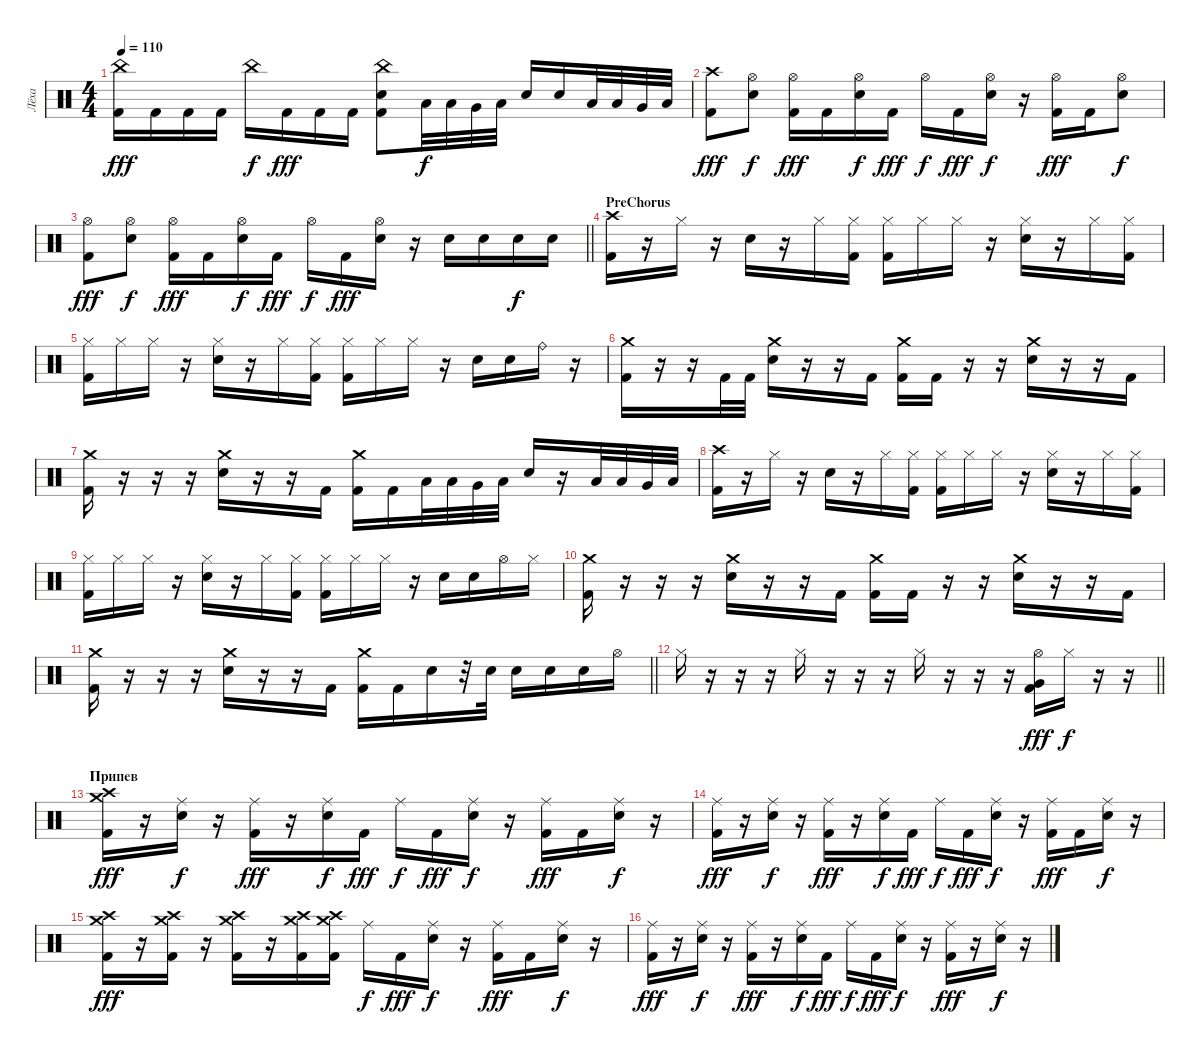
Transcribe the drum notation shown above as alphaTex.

\track ("Лёха" "Лёха") {instrument percussion}
\staff {score}
\articulation defaults
\ts (4 4)
\tempo 110
\clef neutral
\ks c
("China (hit)" "Kick (hit) 2").16{dy fff} "Kick (hit) 2".16 "Kick (hit) 2".16 "Kick (hit) 2".16 "China (hit)".16{dy f} "Kick (hit) 2".16{dy fff} "Kick (hit) 2".16 "Kick (hit) 2".16 ("China (hit)" "Electric Snare (hit)" "Kick (hit) 2").8 "Low Tom (hit)".32{dy f} "Low Tom (hit)".32 "Very Low Tom (hit)".32 "Low Floor Tom (hit)".32 "Electric Snare (hit)".16 "Electric Snare (hit)".16 "Low Tom (hit)".32 "Low Tom (hit)".32 "Very Low Tom (hit)".32 "Low Floor Tom (hit)".32 |
("Crash high (hit)" "Kick (hit) 2").8{dy fff} ("Hi-Hat (open)" "Electric Snare (hit)").8{dy f} ("Hi-Hat (open)" "Kick (hit) 2").16{dy fff} "Kick (hit) 2".16 ("Hi-Hat (open)" "Electric Snare (hit)").16{dy f} "Kick (hit) 2".16{dy fff} "Hi-Hat (open)".16{dy f} "Kick (hit) 2".16{dy fff} ("Hi-Hat (open)" "Electric Snare (hit)").16{dy f} r.16 ("Hi-Hat (open)" "Kick (hit) 2").16{dy fff} "Kick (hit) 2".16 ("Hi-Hat (open)" "Electric Snare (hit)").8{dy f} |
\barLineRight lightlight
("Hi-Hat (open)" "Kick (hit) 2").8{dy fff} ("Hi-Hat (open)" "Electric Snare (hit)").8{dy f} ("Hi-Hat (open)" "Kick (hit) 2").16{dy fff} "Kick (hit) 2".16 ("Hi-Hat (open)" "Electric Snare (hit)").16{dy f} "Kick (hit) 2".16{dy fff} "Hi-Hat (open)".16{dy f} "Kick (hit) 2".16{dy fff} ("Hi-Hat (open)" "Electric Snare (hit)").16 r.16 "Electric Snare (hit)".16 "Electric Snare (hit)".16 "Electric Snare (hit)".16{dy f} "Electric Snare (hit)".16 |
\section ("" "PreChorus")
("Crash high (hit)" "Kick (hit) 2").16 r.16 "Hi-Hat (closed)".16 r.16 "Electric Snare (hit)".16 r.16 "Hi-Hat (closed)".16 ("Hi-Hat (closed)" "Kick (hit) 2").16 ("Hi-Hat (closed)" "Kick (hit) 2").16 "Hi-Hat (closed)".16 "Hi-Hat (closed)".16 r.16 ("Hi-Hat (closed)" "Electric Snare (hit)").16 r.16 "Hi-Hat (closed)".16 ("Hi-Hat (closed)" "Kick (hit) 2").16 |
("Hi-Hat (closed)" "Kick (hit) 2").16 "Hi-Hat (closed)".16 "Hi-Hat (closed)".16 r.16 ("Hi-Hat (closed)" "Electric Snare (hit)").16 r.16 "Hi-Hat (closed)".16 ("Hi-Hat (closed)" "Kick (hit) 2").16 ("Hi-Hat (closed)" "Kick (hit) 2").16 "Hi-Hat (closed)".16 "Hi-Hat (closed)".16 r.16 "Electric Snare (hit)".16 "Electric Snare (hit)".16 "Ride (bell)".16 r.16 |
("Crash medium (hit)" "Kick (hit) 2").16 r.16 r.16 "Kick (hit) 2".32 "Kick (hit) 2".32 ("Crash medium (hit)" "Electric Snare (hit)").16 r.16 r.16 "Kick (hit) 2".16 ("Crash medium (hit)" "Kick (hit) 2").16 "Kick (hit) 2".16 r.16 r.16 ("Crash medium (hit)" "Electric Snare (hit)").16 r.16 r.16 "Kick (hit) 2".16 |
("Crash medium (hit)" "Kick (hit) 2").16 r.16 r.16 r.16 ("Crash medium (hit)" "Electric Snare (hit)").16 r.16 r.16 "Kick (hit) 2".16 ("Crash medium (hit)" "Kick (hit) 2").16 "Kick (hit) 2".16 "Low Tom (hit)".32 "Low Tom (hit)".32 "Very Low Tom (hit)".32 "Low Floor Tom (hit)".32 "Electric Snare (hit)".16 r.16 "Low Tom (hit)".32 "Low Tom (hit)".32 "Very Low Tom (hit)".32 "Low Floor Tom (hit)".32 |
("Crash high (hit)" "Kick (hit) 2").16 r.16 "Hi-Hat (closed)".16 r.16 "Electric Snare (hit)".16 r.16 "Hi-Hat (closed)".16 ("Hi-Hat (closed)" "Kick (hit) 2").16 ("Hi-Hat (closed)" "Kick (hit) 2").16 "Hi-Hat (closed)".16 "Hi-Hat (closed)".16 r.16 ("Hi-Hat (closed)" "Electric Snare (hit)").16 r.16 "Hi-Hat (closed)".16 ("Hi-Hat (closed)" "Kick (hit) 2").16 |
("Hi-Hat (closed)" "Kick (hit) 2").16 "Hi-Hat (closed)".16 "Hi-Hat (closed)".16 r.16 ("Hi-Hat (closed)" "Electric Snare (hit)").16 r.16 "Hi-Hat (closed)".16 ("Hi-Hat (closed)" "Kick (hit) 2").16 ("Hi-Hat (closed)" "Kick (hit) 2").16 "Hi-Hat (closed)".16 "Hi-Hat (closed)".16 r.16 "Electric Snare (hit)".16 "Electric Snare (hit)".16 "Hi-Hat (open)".16 "Hi-Hat (closed)".16 |
("Crash medium (hit)" "Kick (hit) 2").16 r.16 r.16 r.16 ("Crash medium (hit)" "Electric Snare (hit)").16 r.16 r.16 "Kick (hit) 2".16 ("Crash medium (hit)" "Kick (hit) 2").16 "Kick (hit) 2".16 r.16 r.16 ("Crash medium (hit)" "Electric Snare (hit)").16 r.16 r.16 "Kick (hit) 2".16 |
\barLineRight lightlight
("Crash medium (hit)" "Kick (hit) 2").16 r.16 r.16 r.16 ("Crash medium (hit)" "Electric Snare (hit)").16 r.16 r.16 "Kick (hit) 2".16 ("Crash medium (hit)" "Kick (hit) 2").16 "Kick (hit) 2".16 "Electric Snare (hit)".16 r.32 "Electric Snare (hit)".32 "Electric Snare (hit)".16 "Electric Snare (hit)".16 "Electric Snare (hit)".16 "Hi-Hat (open)".16 |
\section ("" "")
\barLineRight lightlight "Hi-Hat (closed)".16
r.16 r.16 r.16 "Hi-Hat (closed)".16 r.16 r.16 r.16 "Hi-Hat (closed)".16 r.16 r.16 r.16 ("Hi-Hat (open)" "Very Low Tom (hit)" "Kick (hit) 2").16{dy fff} "Hi-Hat (closed)".16{dy f} r.16 r.16 |
\section ("" "Припев")
("Crash high (hit)" "Crash medium (hit)" "Kick (hit) 2").16{dy fff} r.16 ("Ride (middle)" "Electric Snare (hit)").16{dy f} r.16 ("Ride (middle)" "Kick (hit) 2").16{dy fff} r.16 ("Ride (middle)" "Electric Snare (hit)").16{dy f} "Kick (hit) 2".16{dy fff} "Ride (middle)".16{dy f} "Kick (hit) 2".16{dy fff} ("Ride (middle)" "Electric Snare (hit)").16{dy f} r.16 ("Ride (middle)" "Kick (hit) 2").16{dy fff} "Kick (hit) 2".16 ("Ride (middle)" "Electric Snare (hit)").16{dy f} r.16 |
("Ride (middle)" "Kick (hit) 2").16{dy fff} r.16 ("Ride (middle)" "Electric Snare (hit)").16{dy f} r.16 ("Ride (middle)" "Kick (hit) 2").16{dy fff} r.16 ("Ride (middle)" "Electric Snare (hit)").16{dy f} "Kick (hit) 2".16{dy fff} "Ride (middle)".16{dy f} "Kick (hit) 2".16{dy fff} ("Ride (middle)" "Electric Snare (hit)").16{dy f} r.16 ("Ride (middle)" "Kick (hit) 2").16{dy fff} "Kick (hit) 2".16 ("Ride (middle)" "Electric Snare (hit)").16{dy f} r.16 |
("Crash high (hit)" "Crash medium (hit)" "Kick (hit) 2").16{dy fff} r.16 ("Crash high (hit)" "Crash medium (hit)" "Kick (hit) 2").16 r.16 ("Crash high (hit)" "Crash medium (hit)" "Kick (hit) 2").16 r.16 ("Crash high (hit)" "Crash medium (hit)" "Kick (hit) 2").16 ("Crash high (hit)" "Crash medium (hit)" "Kick (hit) 2").16 "Ride (middle)".16{dy f} "Kick (hit) 2".16{dy fff} ("Ride (middle)" "Electric Snare (hit)").16{dy f} r.16 ("Ride (middle)" "Kick (hit) 2").16{dy fff} "Kick (hit) 2".16 ("Ride (middle)" "Electric Snare (hit)").16{dy f} r.16 |
("Ride (middle)" "Kick (hit) 2").16{dy fff} r.16 ("Ride (middle)" "Electric Snare (hit)").16{dy f} r.16 ("Ride (middle)" "Kick (hit) 2").16{dy fff} r.16 ("Ride (middle)" "Electric Snare (hit)").16{dy f} "Kick (hit) 2".16{dy fff} "Ride (middle)".16{dy f} "Kick (hit) 2".16{dy fff} ("Ride (middle)" "Electric Snare (hit)").16{dy f} r.16 ("Ride (middle)" "Kick (hit) 2").16{dy fff} r.16 ("Ride (middle)" "Electric Snare (hit)").16{dy f} r.16
